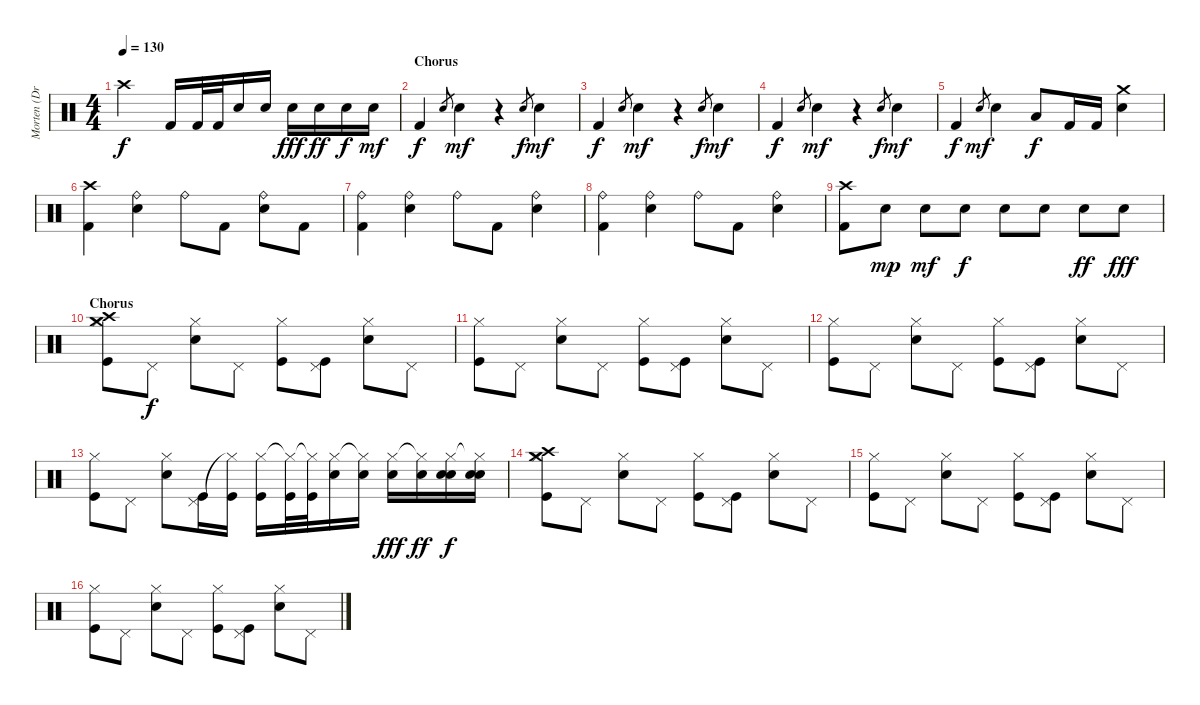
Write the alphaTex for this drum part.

\track ("Morten (Drums)" "Morten (Dr") {instrument percussion}
\staff {score}
\articulation defaults
\ts (4 4)
\tempo 130
\clef neutral
\ks c "Crash high (hit)".2{dy f} "Kick (hit) 2".16 "Kick (hit) 2".32 "Kick (hit) 2".32 "Snare (hit) 2".16 "Snare (hit) 2".16 "Snare (hit) 2".16{dy fff} "Snare (hit) 2".16{dy ff} "Snare (hit) 2".16{dy f} "Snare (hit) 2".16{dy mf}
|
\section ("" "Chorus")
"Kick (hit) 2".4{dy f} "Snare (hit) 2".8{gr} "Snare (hit) 2".4{dy mf} r.4 "Snare (hit) 2".8{gr dy f} "Snare (hit) 2".4{dy mf} |
"Kick (hit) 2".4{dy f} "Snare (hit) 2".8{gr} "Snare (hit) 2".4{dy mf} r.4 "Snare (hit) 2".8{gr dy f} "Snare (hit) 2".4{dy mf} |
"Kick (hit) 2".4{dy f} "Snare (hit) 2".8{gr} "Snare (hit) 2".4{dy mf} r.4 "Snare (hit) 2".8{gr dy f} "Snare (hit) 2".4{dy mf} |
"Kick (hit) 2".4{dy f} "Snare (hit) 2".8{gr dy mf} "Snare (hit) 2".4 "Low Tom (hit)".8{dy f} "Kick (hit) 2".16 "Kick (hit) 2".16 ("Crash medium (hit)" "Snare (hit) 2").4 |
("Crash high (hit)" "Kick (hit) 2").4 ("Ride (bell)" "Snare (hit) 2").4 "Ride (bell)".8 "Kick (hit) 2".8 ("Ride (bell)" "Snare (hit) 2").8 "Kick (hit) 2".8 |
("Ride (bell)" "Kick (hit) 2").4 ("Ride (bell)" "Snare (hit) 2").4 "Ride (bell)".8 "Kick (hit) 2".8 ("Ride (bell)" "Snare (hit) 2").4 |
("Ride (bell)" "Kick (hit) 2").4 ("Ride (bell)" "Snare (hit) 2").4 "Ride (bell)".8 "Kick (hit) 2".8 ("Ride (bell)" "Snare (hit) 2").4 |
("Crash high (hit)" "Kick (hit) 2").8 "Snare (hit) 2".8{dy mp} "Snare (hit) 2".8{dy mf} "Snare (hit) 2".8{dy f} "Snare (hit) 2".8 "Snare (hit) 2".8 "Snare (hit) 2".8{dy ff} "Snare (hit) 2".8{dy fff} |
\section ("" "Chorus")
("Hi-Hat (closed)" "Kick (hit)" "Crash high (hit)" "Crash medium (hit)").8 "Pedal Hi-Hat (hit)".8{dy f} ("Hi-Hat (closed)" "Snare (hit) 2").8 "Pedal Hi-Hat (hit)".8 ("Hi-Hat (closed)" "Kick (hit)").8 ("Pedal Hi-Hat (hit)" "Kick (hit)").8 ("Hi-Hat (closed)" "Snare (hit) 2").8 "Pedal Hi-Hat (hit)".8 |
("Hi-Hat (closed)" "Kick (hit)").8 "Pedal Hi-Hat (hit)".8 ("Hi-Hat (closed)" "Snare (hit) 2").8 "Pedal Hi-Hat (hit)".8 ("Hi-Hat (closed)" "Kick (hit)").8 ("Pedal Hi-Hat (hit)" "Kick (hit)").8 ("Hi-Hat (closed)" "Snare (hit) 2").8 "Pedal Hi-Hat (hit)".8 |
("Hi-Hat (closed)" "Kick (hit)").8 "Pedal Hi-Hat (hit)".8 ("Hi-Hat (closed)" "Snare (hit) 2").8 "Pedal Hi-Hat (hit)".8 ("Hi-Hat (closed)" "Kick (hit)").8 ("Pedal Hi-Hat (hit)" "Kick (hit)").8 ("Hi-Hat (closed)" "Snare (hit) 2").8 "Pedal Hi-Hat (hit)".8 |
("Hi-Hat (closed)" "Kick (hit)").8 "Pedal Hi-Hat (hit)".8 ("Hi-Hat (closed)" "Snare (hit) 2").8 ("Pedal Hi-Hat (hit)" "Kick (hit)").16 ("Hi-Hat (closed)"{t} "Kick (hit)").16 ("Hi-Hat (closed)" "Kick (hit)").16 ("Hi-Hat (closed)"{t} "Kick (hit)").32 ("Hi-Hat (closed)"{t} "Kick (hit)").32 ("Hi-Hat (closed)" "Snare (hit) 2").16 ("Hi-Hat (closed)"{t} "Snare (hit) 2").16 ("Hi-Hat (closed)" "Snare (hit) 2").16{dy fff} ("Hi-Hat (closed)"{t} "Snare (hit) 2").16{dy ff} ("Hi-Hat (closed)" "Snare (hit) 2" "Snare (hit) 2").16{dy f} ("Hi-Hat (closed)"{t} "Snare (hit) 2" "Snare (hit) 2").16 |
("Hi-Hat (closed)" "Kick (hit)" "Crash high (hit)" "Crash medium (hit)").8 "Pedal Hi-Hat (hit)".8 ("Hi-Hat (closed)" "Snare (hit) 2").8 "Pedal Hi-Hat (hit)".8 ("Hi-Hat (closed)" "Kick (hit)").8 ("Pedal Hi-Hat (hit)" "Kick (hit)").8 ("Hi-Hat (closed)" "Snare (hit) 2").8 "Pedal Hi-Hat (hit)".8 |
("Hi-Hat (closed)" "Kick (hit)").8 "Pedal Hi-Hat (hit)".8 ("Hi-Hat (closed)" "Snare (hit) 2").8 "Pedal Hi-Hat (hit)".8 ("Hi-Hat (closed)" "Kick (hit)").8 ("Pedal Hi-Hat (hit)" "Kick (hit)").8 ("Hi-Hat (closed)" "Snare (hit) 2").8 "Pedal Hi-Hat (hit)".8 |
("Hi-Hat (closed)" "Kick (hit)").8 "Pedal Hi-Hat (hit)".8 ("Hi-Hat (closed)" "Snare (hit) 2").8 "Pedal Hi-Hat (hit)".8 ("Hi-Hat (closed)" "Kick (hit)").8 ("Pedal Hi-Hat (hit)" "Kick (hit)").8 ("Hi-Hat (closed)" "Snare (hit) 2").8 "Pedal Hi-Hat (hit)".8
